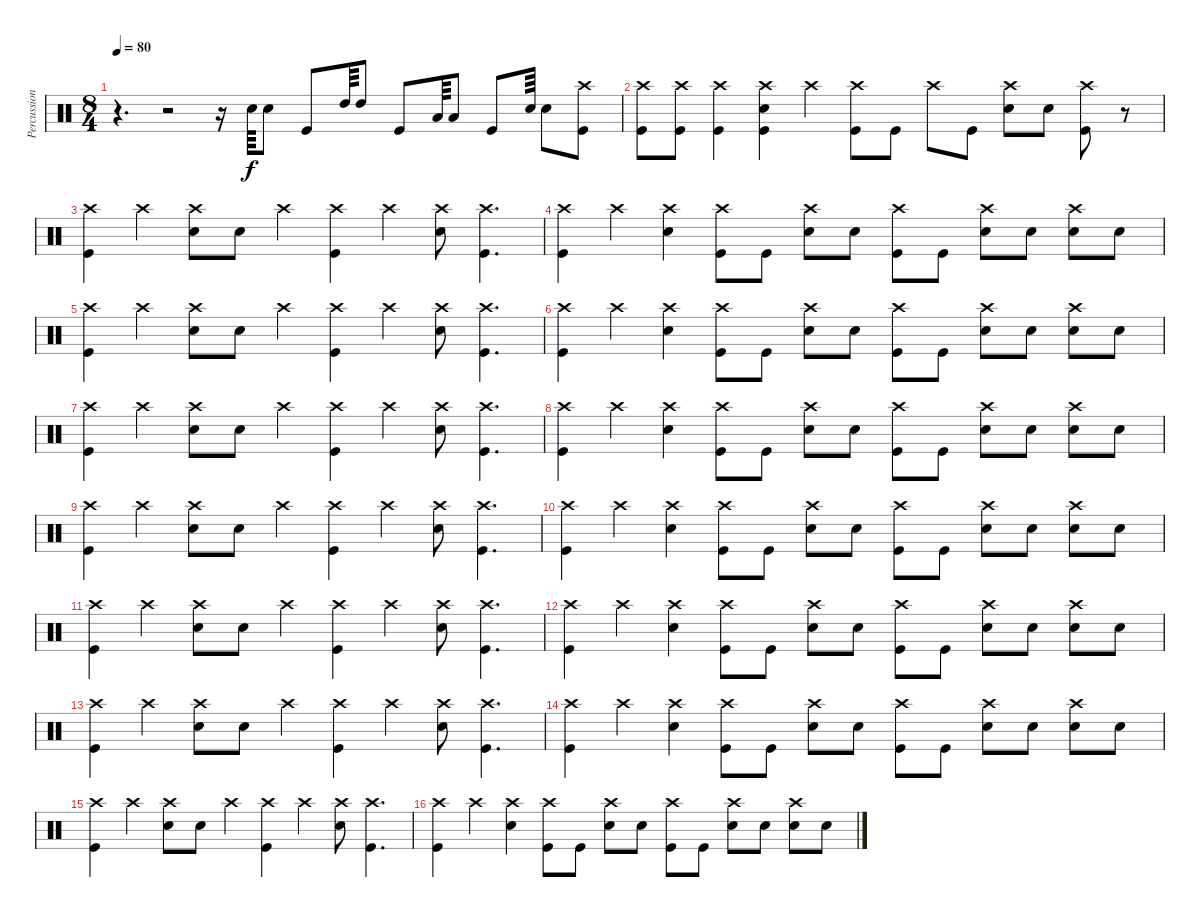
\track ("Percussion" "Percussion") {instrument percussion}
\staff {score}
\articulation defaults
\ts (8 4)
\tempo 80
\clef neutral
\ks c
r.4{d dy f} r.2 r.16 "Electric Snare (hit)".64 "Electric Snare (hit)".8 "Kick (hit)".8 "High Tom (hit)".64 "High Tom (hit)".8 "Kick (hit)".8 "Low Tom (hit)".64 "Low Tom (hit)".8 "Kick (hit)".8 "Electric Snare (hit)".64 "Electric Snare (hit)".8 ("Crash high (hit)" "Kick (hit)").8 |
("Crash high (hit)" "Kick (hit)").8 ("Crash high (hit)" "Kick (hit)").8 ("Crash high (hit)" "Kick (hit)").4 ("Crash high (hit)" "Electric Snare (hit)" "Kick (hit)").4 "Crash high (hit)".4 ("Crash high (hit)" "Kick (hit)").8 "Kick (hit)".8 "Crash high (hit)".8 "Kick (hit)".8 ("Crash high (hit)" "Electric Snare (hit)").8 "Electric Snare (hit)".8 ("Crash high (hit)" "Kick (hit)").8 r.8 |
("Crash high (hit)" "Kick (hit)").4 "Crash high (hit)".4 ("Crash high (hit)" "Electric Snare (hit)").8 "Electric Snare (hit)".8 "Crash high (hit)".4 ("Crash high (hit)" "Kick (hit)").4 "Crash high (hit)".4 ("Crash high (hit)" "Electric Snare (hit)").8 ("Crash high (hit)" "Kick (hit)").4{d} |
("Crash high (hit)" "Kick (hit)").4 "Crash high (hit)".4 ("Crash high (hit)" "Electric Snare (hit)").4 ("Crash high (hit)" "Kick (hit)").8 "Kick (hit)".8 ("Crash high (hit)" "Electric Snare (hit)").8 "Electric Snare (hit)".8 ("Crash high (hit)" "Kick (hit)").8 "Kick (hit)".8 ("Crash high (hit)" "Electric Snare (hit)").8 "Electric Snare (hit)".8 ("Crash high (hit)" "Electric Snare (hit)").8 "Electric Snare (hit)".8 |
("Crash high (hit)" "Kick (hit)").4 "Crash high (hit)".4 ("Crash high (hit)" "Electric Snare (hit)").8 "Electric Snare (hit)".8 "Crash high (hit)".4 ("Crash high (hit)" "Kick (hit)").4 "Crash high (hit)".4 ("Crash high (hit)" "Electric Snare (hit)").8 ("Crash high (hit)" "Kick (hit)").4{d} |
("Crash high (hit)" "Kick (hit)").4 "Crash high (hit)".4 ("Crash high (hit)" "Electric Snare (hit)").4 ("Crash high (hit)" "Kick (hit)").8 "Kick (hit)".8 ("Crash high (hit)" "Electric Snare (hit)").8 "Electric Snare (hit)".8 ("Crash high (hit)" "Kick (hit)").8 "Kick (hit)".8 ("Crash high (hit)" "Electric Snare (hit)").8 "Electric Snare (hit)".8 ("Crash high (hit)" "Electric Snare (hit)").8 "Electric Snare (hit)".8 |
("Crash high (hit)" "Kick (hit)").4 "Crash high (hit)".4 ("Crash high (hit)" "Electric Snare (hit)").8 "Electric Snare (hit)".8 "Crash high (hit)".4 ("Crash high (hit)" "Kick (hit)").4 "Crash high (hit)".4 ("Crash high (hit)" "Electric Snare (hit)").8 ("Crash high (hit)" "Kick (hit)").4{d} |
("Crash high (hit)" "Kick (hit)").4 "Crash high (hit)".4 ("Crash high (hit)" "Electric Snare (hit)").4 ("Crash high (hit)" "Kick (hit)").8 "Kick (hit)".8 ("Crash high (hit)" "Electric Snare (hit)").8 "Electric Snare (hit)".8 ("Crash high (hit)" "Kick (hit)").8 "Kick (hit)".8 ("Crash high (hit)" "Electric Snare (hit)").8 "Electric Snare (hit)".8 ("Crash high (hit)" "Electric Snare (hit)").8 "Electric Snare (hit)".8 |
("Crash high (hit)" "Kick (hit)").4 "Crash high (hit)".4 ("Crash high (hit)" "Electric Snare (hit)").8 "Electric Snare (hit)".8 "Crash high (hit)".4 ("Crash high (hit)" "Kick (hit)").4 "Crash high (hit)".4 ("Crash high (hit)" "Electric Snare (hit)").8 ("Crash high (hit)" "Kick (hit)").4{d} |
("Crash high (hit)" "Kick (hit)").4 "Crash high (hit)".4 ("Crash high (hit)" "Electric Snare (hit)").4 ("Crash high (hit)" "Kick (hit)").8 "Kick (hit)".8 ("Crash high (hit)" "Electric Snare (hit)").8 "Electric Snare (hit)".8 ("Crash high (hit)" "Kick (hit)").8 "Kick (hit)".8 ("Crash high (hit)" "Electric Snare (hit)").8 "Electric Snare (hit)".8 ("Crash high (hit)" "Electric Snare (hit)").8 "Electric Snare (hit)".8 |
("Crash high (hit)" "Kick (hit)").4 "Crash high (hit)".4 ("Crash high (hit)" "Electric Snare (hit)").8 "Electric Snare (hit)".8 "Crash high (hit)".4 ("Crash high (hit)" "Kick (hit)").4 "Crash high (hit)".4 ("Crash high (hit)" "Electric Snare (hit)").8 ("Crash high (hit)" "Kick (hit)").4{d} |
("Crash high (hit)" "Kick (hit)").4 "Crash high (hit)".4 ("Crash high (hit)" "Electric Snare (hit)").4 ("Crash high (hit)" "Kick (hit)").8 "Kick (hit)".8 ("Crash high (hit)" "Electric Snare (hit)").8 "Electric Snare (hit)".8 ("Crash high (hit)" "Kick (hit)").8 "Kick (hit)".8 ("Crash high (hit)" "Electric Snare (hit)").8 "Electric Snare (hit)".8 ("Crash high (hit)" "Electric Snare (hit)").8 "Electric Snare (hit)".8 |
("Crash high (hit)" "Kick (hit)").4 "Crash high (hit)".4 ("Crash high (hit)" "Electric Snare (hit)").8 "Electric Snare (hit)".8 "Crash high (hit)".4 ("Crash high (hit)" "Kick (hit)").4 "Crash high (hit)".4 ("Crash high (hit)" "Electric Snare (hit)").8 ("Crash high (hit)" "Kick (hit)").4{d} |
("Crash high (hit)" "Kick (hit)").4 "Crash high (hit)".4 ("Crash high (hit)" "Electric Snare (hit)").4 ("Crash high (hit)" "Kick (hit)").8 "Kick (hit)".8 ("Crash high (hit)" "Electric Snare (hit)").8 "Electric Snare (hit)".8 ("Crash high (hit)" "Kick (hit)").8 "Kick (hit)".8 ("Crash high (hit)" "Electric Snare (hit)").8 "Electric Snare (hit)".8 ("Crash high (hit)" "Electric Snare (hit)").8 "Electric Snare (hit)".8 |
("Crash high (hit)" "Kick (hit)").4 "Crash high (hit)".4 ("Crash high (hit)" "Electric Snare (hit)").8 "Electric Snare (hit)".8 "Crash high (hit)".4 ("Crash high (hit)" "Kick (hit)").4 "Crash high (hit)".4 ("Crash high (hit)" "Electric Snare (hit)").8 ("Crash high (hit)" "Kick (hit)").4{d} |
("Crash high (hit)" "Kick (hit)").4 "Crash high (hit)".4 ("Crash high (hit)" "Electric Snare (hit)").4 ("Crash high (hit)" "Kick (hit)").8 "Kick (hit)".8 ("Crash high (hit)" "Electric Snare (hit)").8 "Electric Snare (hit)".8 ("Crash high (hit)" "Kick (hit)").8 "Kick (hit)".8 ("Crash high (hit)" "Electric Snare (hit)").8 "Electric Snare (hit)".8 ("Crash high (hit)" "Electric Snare (hit)").8 "Electric Snare (hit)".8
